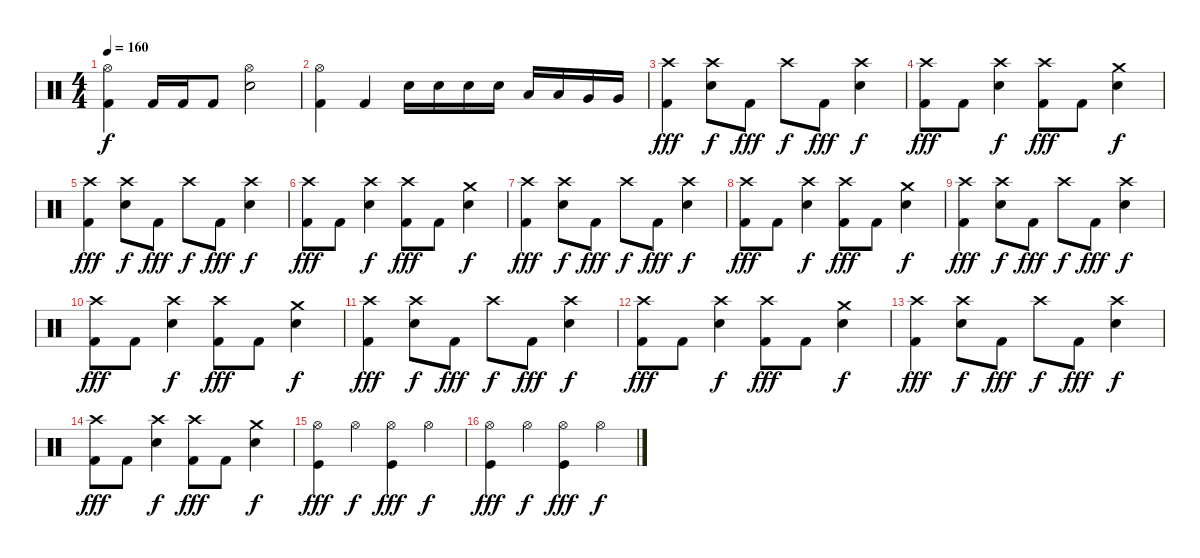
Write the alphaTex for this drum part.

\track "" {instrument percussion}
\staff {score}
\articulation defaults
\ts (4 4)
\tempo 160
\clef neutral
\ks c
("Hi-Hat (open)" "Kick (hit) 2").4{dy f} "Kick (hit) 2".16 "Kick (hit) 2".16 "Kick (hit) 2".8 ("Hi-Hat (open)" "Electric Snare (hit)").2 |
("Hi-Hat (open)" "Kick (hit) 2").4 "Kick (hit) 2".4 "Electric Snare (hit)".16 "Electric Snare (hit)".16 "Electric Snare (hit)".16 "Electric Snare (hit)".16 "Low Tom (hit)".16 "Low Tom (hit)".16 "Very Low Tom (hit)".16 "Very Low Tom (hit)".16 |
("Crash high (hit)" "Kick (hit) 2").4{dy fff} ("Crash high (hit)" "Snare (hit) 2").8{dy f} "Kick (hit) 2".8{dy fff} "Crash high (hit)".8{dy f} "Kick (hit) 2".8{dy fff} ("Crash high (hit)" "Snare (hit) 2").4{dy f} |
("Crash high (hit)" "Kick (hit) 2").8{dy fff} "Kick (hit) 2".8 ("Crash high (hit)" "Snare (hit) 2").4{dy f} ("Crash high (hit)" "Kick (hit) 2").8{dy fff} "Kick (hit) 2".8 ("Crash medium (hit)" "Snare (hit) 2").4{dy f} |
("Crash high (hit)" "Kick (hit) 2").4{dy fff} ("Crash high (hit)" "Snare (hit) 2").8{dy f} "Kick (hit) 2".8{dy fff} "Crash high (hit)".8{dy f} "Kick (hit) 2".8{dy fff} ("Crash high (hit)" "Snare (hit) 2").4{dy f} |
("Crash high (hit)" "Kick (hit) 2").8{dy fff} "Kick (hit) 2".8 ("Crash high (hit)" "Snare (hit) 2").4{dy f} ("Crash high (hit)" "Kick (hit) 2").8{dy fff} "Kick (hit) 2".8 ("Crash medium (hit)" "Snare (hit) 2").4{dy f} |
("Crash high (hit)" "Kick (hit) 2").4{dy fff} ("Crash high (hit)" "Snare (hit) 2").8{dy f} "Kick (hit) 2".8{dy fff} "Crash high (hit)".8{dy f} "Kick (hit) 2".8{dy fff} ("Crash high (hit)" "Snare (hit) 2").4{dy f} |
("Crash high (hit)" "Kick (hit) 2").8{dy fff} "Kick (hit) 2".8 ("Crash high (hit)" "Snare (hit) 2").4{dy f} ("Crash high (hit)" "Kick (hit) 2").8{dy fff} "Kick (hit) 2".8 ("Crash medium (hit)" "Snare (hit) 2").4{dy f} |
("Crash high (hit)" "Kick (hit) 2").4{dy fff} ("Crash high (hit)" "Snare (hit) 2").8{dy f} "Kick (hit) 2".8{dy fff} "Crash high (hit)".8{dy f} "Kick (hit) 2".8{dy fff} ("Crash high (hit)" "Snare (hit) 2").4{dy f} |
("Crash high (hit)" "Kick (hit) 2").8{dy fff} "Kick (hit) 2".8 ("Crash high (hit)" "Snare (hit) 2").4{dy f} ("Crash high (hit)" "Kick (hit) 2").8{dy fff} "Kick (hit) 2".8 ("Crash medium (hit)" "Snare (hit) 2").4{dy f} |
("Crash high (hit)" "Kick (hit) 2").4{dy fff} ("Crash high (hit)" "Snare (hit) 2").8{dy f} "Kick (hit) 2".8{dy fff} "Crash high (hit)".8{dy f} "Kick (hit) 2".8{dy fff} ("Crash high (hit)" "Snare (hit) 2").4{dy f} |
("Crash high (hit)" "Kick (hit) 2").8{dy fff} "Kick (hit) 2".8 ("Crash high (hit)" "Snare (hit) 2").4{dy f} ("Crash high (hit)" "Kick (hit) 2").8{dy fff} "Kick (hit) 2".8 ("Crash medium (hit)" "Snare (hit) 2").4{dy f} |
("Crash high (hit)" "Kick (hit) 2").4{dy fff} ("Crash high (hit)" "Snare (hit) 2").8{dy f} "Kick (hit) 2".8{dy fff} "Crash high (hit)".8{dy f} "Kick (hit) 2".8{dy fff} ("Crash high (hit)" "Snare (hit) 2").4{dy f} |
("Crash high (hit)" "Kick (hit) 2").8{dy fff} "Kick (hit) 2".8 ("Crash high (hit)" "Snare (hit) 2").4{dy f} ("Crash high (hit)" "Kick (hit) 2").8{dy fff} "Kick (hit) 2".8 ("Crash medium (hit)" "Snare (hit) 2").4{dy f} |
("Hi-Hat (open)" "Kick (hit)").4{dy fff} "Hi-Hat (open)".4{dy f} ("Hi-Hat (open)" "Kick (hit)").4{dy fff} "Hi-Hat (open)".4{dy f} |
("Hi-Hat (open)" "Kick (hit)").4{dy fff} "Hi-Hat (open)".4{dy f} ("Hi-Hat (open)" "Kick (hit)").4{dy fff} "Hi-Hat (open)".4{dy f}
